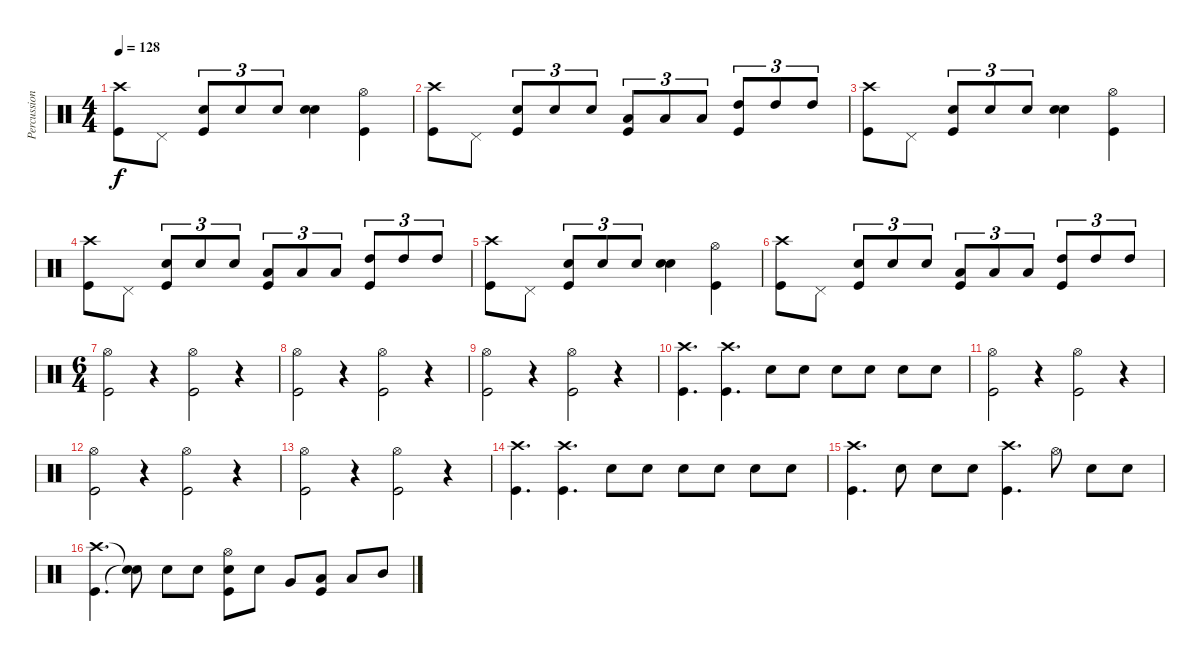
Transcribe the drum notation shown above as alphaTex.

\track ("Percussion" "Percussion") {instrument percussion}
\staff {score}
\articulation defaults
\ts (4 4)
\tempo 128
\clef neutral
\ks c
("Kick (hit)" "Crash high (hit)").8{dy f} "Pedal Hi-Hat (hit)".8 ("Snare (hit) 2" "Kick (hit)").8{tu (3 2)} "Snare (hit) 2".8{tu (3 2)} "Snare (hit) 2".8{tu (3 2)} ("Snare (hit) 2" "Snare (hit) 2").4 ("Kick (hit)" "Hi-Hat (open)").4 |
("Kick (hit)" "Crash high (hit)").8 "Pedal Hi-Hat (hit)".8 ("Snare (hit) 2" "Kick (hit)").8{tu (3 2)} "Snare (hit) 2".8{tu (3 2)} "Snare (hit) 2".8{tu (3 2)} ("Low Tom (hit)" "Kick (hit)").8{tu (3 2)} "Low Tom (hit)".8{tu (3 2)} "Low Tom (hit)".8{tu (3 2)} ("High Tom (hit)" "Kick (hit)").8{tu (3 2)} "High Tom (hit)".8{tu (3 2)} "High Tom (hit)".8{tu (3 2)} |
("Kick (hit)" "Crash high (hit)").8 "Pedal Hi-Hat (hit)".8 ("Snare (hit) 2" "Kick (hit)").8{tu (3 2)} "Snare (hit) 2".8{tu (3 2)} "Snare (hit) 2".8{tu (3 2)} ("Snare (hit) 2" "Snare (hit) 2").4 ("Kick (hit)" "Hi-Hat (open)").4 |
("Kick (hit)" "Crash high (hit)").8 "Pedal Hi-Hat (hit)".8 ("Snare (hit) 2" "Kick (hit)").8{tu (3 2)} "Snare (hit) 2".8{tu (3 2)} "Snare (hit) 2".8{tu (3 2)} ("Low Tom (hit)" "Kick (hit)").8{tu (3 2)} "Low Tom (hit)".8{tu (3 2)} "Low Tom (hit)".8{tu (3 2)} ("High Tom (hit)" "Kick (hit)").8{tu (3 2)} "High Tom (hit)".8{tu (3 2)} "High Tom (hit)".8{tu (3 2)} |
("Kick (hit)" "Crash high (hit)").8 "Pedal Hi-Hat (hit)".8 ("Snare (hit) 2" "Kick (hit)").8{tu (3 2)} "Snare (hit) 2".8{tu (3 2)} "Snare (hit) 2".8{tu (3 2)} ("Snare (hit) 2" "Snare (hit) 2").4 ("Kick (hit)" "Hi-Hat (open)").4 |
("Kick (hit)" "Crash high (hit)").8 "Pedal Hi-Hat (hit)".8 ("Snare (hit) 2" "Kick (hit)").8{tu (3 2)} "Snare (hit) 2".8{tu (3 2)} "Snare (hit) 2".8{tu (3 2)} ("Low Tom (hit)" "Kick (hit)").8{tu (3 2)} "Low Tom (hit)".8{tu (3 2)} "Low Tom (hit)".8{tu (3 2)} ("High Tom (hit)" "Kick (hit)").8{tu (3 2)} "High Tom (hit)".8{tu (3 2)} "High Tom (hit)".8{tu (3 2)} |
\ts (6 4)
("Kick (hit)" "Hi-Hat (open)").2 r.4 ("Kick (hit)" "Hi-Hat (open)").2 r.4 |
("Kick (hit)" "Hi-Hat (open)").2 r.4 ("Kick (hit)" "Hi-Hat (open)").2 r.4 |
("Kick (hit)" "Hi-Hat (open)").2 r.4 ("Kick (hit)" "Hi-Hat (open)").2 r.4 |
("Kick (hit)" "Crash high (hit)").4{d} ("Kick (hit)" "Crash high (hit)").4{d} "Snare (hit) 2".8 "Snare (hit) 2".8 "Snare (hit) 2".8 "Snare (hit) 2".8 "Snare (hit) 2".8 "Snare (hit) 2".8 |
("Kick (hit)" "Hi-Hat (open)").2 r.4 ("Kick (hit)" "Hi-Hat (open)").2 r.4 |
("Kick (hit)" "Hi-Hat (open)").2 r.4 ("Kick (hit)" "Hi-Hat (open)").2 r.4 |
("Kick (hit)" "Hi-Hat (open)").2 r.4 ("Kick (hit)" "Hi-Hat (open)").2 r.4 |
("Kick (hit)" "Crash high (hit)").4{d} ("Kick (hit)" "Crash high (hit)").4{d} "Snare (hit) 2".8 "Snare (hit) 2".8 "Snare (hit) 2".8 "Snare (hit) 2".8 "Snare (hit) 2".8 "Snare (hit) 2".8 |
("Kick (hit)" "Crash high (hit)").4{d} "Snare (hit) 2".8 "Snare (hit) 2".8 "Snare (hit) 2".8 ("Kick (hit)" "Crash high (hit)").4{d} "Hi-Hat (open)".8 "Snare (hit) 2".8 "Snare (hit) 2".8 |
("Kick (hit)" "Crash high (hit)").4{d} ("Snare (hit)"{t} "Snare (hit)"{t}).8 "Snare (hit) 2".8 "Snare (hit) 2".8 ("Kick (hit)" "Snare (hit) 2" "Hi-Hat (open)").8 "Snare (hit) 2".8 "Very Low Tom (hit)".8 ("Kick (hit)" "Low Tom (hit)").8 "Low Tom (hit)".8 "Mid Tom (hit)".8
